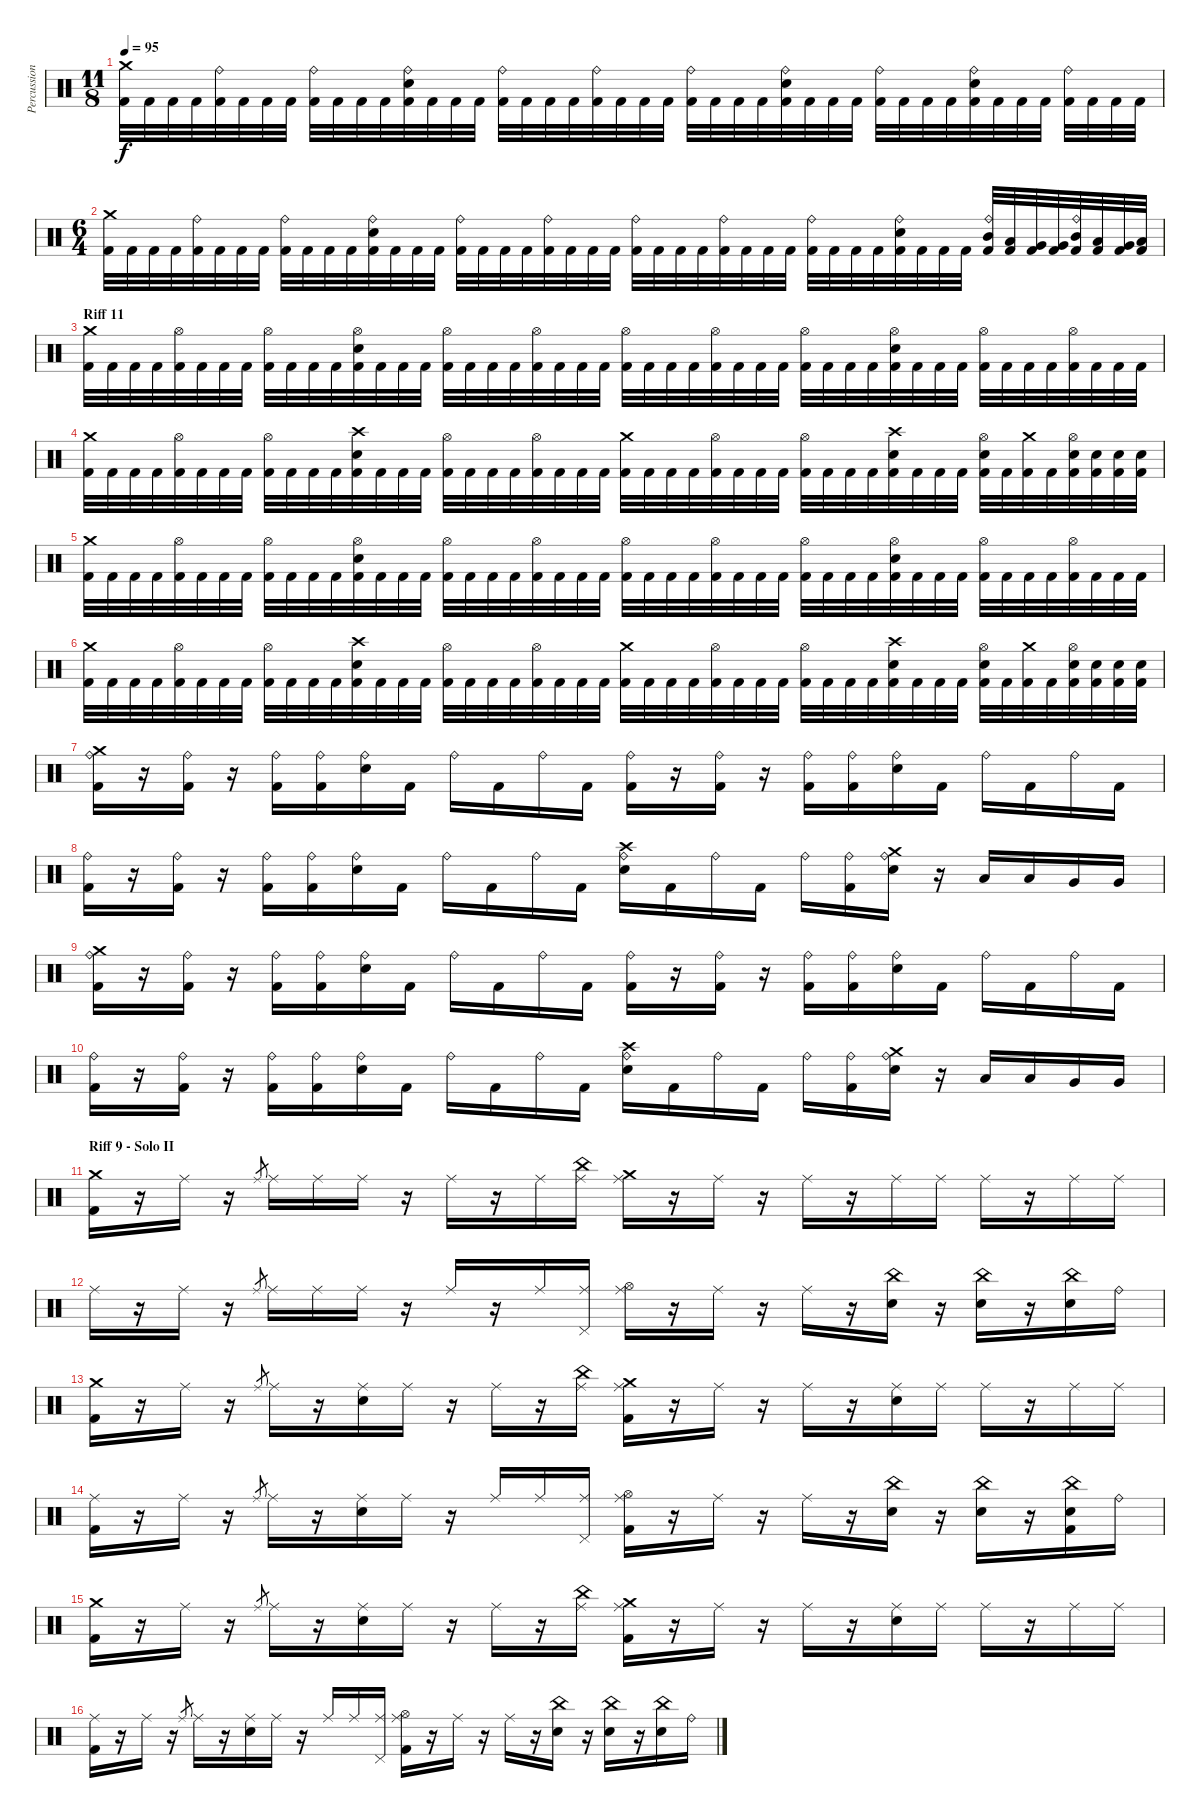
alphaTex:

\track ("Percussion" "Percussion") {instrument percussion}
\staff {score}
\articulation defaults
\ts (11 8)
\tempo 95
\clef neutral
\ks c
("Crash medium (hit)" "Kick (hit) 2").32{dy f} "Kick (hit) 2".32 "Kick (hit) 2".32 "Kick (hit) 2".32 ("Ride (bell)" "Kick (hit) 2").32 "Kick (hit) 2".32 "Kick (hit) 2".32 "Kick (hit) 2".32 ("Ride (bell)" "Kick (hit) 2").32 "Kick (hit) 2".32 "Kick (hit) 2".32 "Kick (hit) 2".32 ("Ride (bell)" "Electric Snare (hit)" "Kick (hit) 2").32 "Kick (hit) 2".32 "Kick (hit) 2".32 "Kick (hit) 2".32 ("Ride (bell)" "Kick (hit) 2").32 "Kick (hit) 2".32 "Kick (hit) 2".32 "Kick (hit) 2".32 ("Ride (bell)" "Kick (hit) 2").32 "Kick (hit) 2".32 "Kick (hit) 2".32 "Kick (hit) 2".32 ("Ride (bell)" "Kick (hit) 2").32 "Kick (hit) 2".32 "Kick (hit) 2".32 "Kick (hit) 2".32 ("Ride (bell)" "Electric Snare (hit)" "Kick (hit) 2").32 "Kick (hit) 2".32 "Kick (hit) 2".32 "Kick (hit) 2".32 ("Ride (bell)" "Kick (hit) 2").32 "Kick (hit) 2".32 "Kick (hit) 2".32 "Kick (hit) 2".32 ("Ride (bell)" "Electric Snare (hit)" "Kick (hit) 2").32 "Kick (hit) 2".32 "Kick (hit) 2".32 "Kick (hit) 2".32 ("Ride (bell)" "Kick (hit) 2").32 "Kick (hit) 2".32 "Kick (hit) 2".32 "Kick (hit) 2".32 |
\ts (6 4)
("Crash medium (hit)" "Kick (hit) 2").32 "Kick (hit) 2".32 "Kick (hit) 2".32 "Kick (hit) 2".32 ("Ride (bell)" "Kick (hit) 2").32 "Kick (hit) 2".32 "Kick (hit) 2".32 "Kick (hit) 2".32 ("Ride (bell)" "Kick (hit) 2").32 "Kick (hit) 2".32 "Kick (hit) 2".32 "Kick (hit) 2".32 ("Ride (bell)" "Electric Snare (hit)" "Kick (hit) 2").32 "Kick (hit) 2".32 "Kick (hit) 2".32 "Kick (hit) 2".32 ("Ride (bell)" "Kick (hit) 2").32 "Kick (hit) 2".32 "Kick (hit) 2".32 "Kick (hit) 2".32 ("Ride (bell)" "Kick (hit) 2").32 "Kick (hit) 2".32 "Kick (hit) 2".32 "Kick (hit) 2".32 ("Ride (bell)" "Kick (hit) 2").32 "Kick (hit) 2".32 "Kick (hit) 2".32 "Kick (hit) 2".32 ("Ride (bell)" "Kick (hit) 2").32 "Kick (hit) 2".32 "Kick (hit) 2".32 "Kick (hit) 2".32 ("Ride (bell)" "Kick (hit) 2").32 "Kick (hit) 2".32 "Kick (hit) 2".32 "Kick (hit) 2".32 ("Ride (bell)" "Electric Snare (hit)" "Kick (hit) 2").32 "Kick (hit) 2".32 "Kick (hit) 2".32 "Kick (hit) 2".32 ("Ride (bell)" "Mid Tom (hit)" "Kick (hit) 2").32 ("Low Tom (hit)" "Kick (hit) 2").32 ("Very Low Tom (hit)" "Kick (hit) 2").32 ("Very Low Tom (hit)" "Kick (hit) 2").32 ("Ride (bell)" "Mid Tom (hit)" "Kick (hit) 2").32 ("Low Tom (hit)" "Kick (hit) 2").32 ("Very Low Tom (hit)" "Kick (hit) 2").32 ("Low Floor Tom (hit)" "Kick (hit) 2").32 |
\section ("" "Riff 11")
("Crash medium (hit)" "Kick (hit) 2").32 "Kick (hit) 2".32 "Kick (hit) 2".32 "Kick (hit) 2".32 ("Hi-Hat (open)" "Kick (hit) 2").32 "Kick (hit) 2".32 "Kick (hit) 2".32 "Kick (hit) 2".32 ("Hi-Hat (open)" "Kick (hit) 2").32 "Kick (hit) 2".32 "Kick (hit) 2".32 "Kick (hit) 2".32 ("Hi-Hat (open)" "Electric Snare (hit)" "Kick (hit) 2").32 "Kick (hit) 2".32 "Kick (hit) 2".32 "Kick (hit) 2".32 ("Hi-Hat (open)" "Kick (hit) 2").32 "Kick (hit) 2".32 "Kick (hit) 2".32 "Kick (hit) 2".32 ("Hi-Hat (open)" "Kick (hit) 2").32 "Kick (hit) 2".32 "Kick (hit) 2".32 "Kick (hit) 2".32 ("Hi-Hat (open)" "Kick (hit) 2").32 "Kick (hit) 2".32 "Kick (hit) 2".32 "Kick (hit) 2".32 ("Hi-Hat (open)" "Kick (hit) 2").32 "Kick (hit) 2".32 "Kick (hit) 2".32 "Kick (hit) 2".32 ("Hi-Hat (open)" "Kick (hit) 2").32 "Kick (hit) 2".32 "Kick (hit) 2".32 "Kick (hit) 2".32 ("Hi-Hat (open)" "Electric Snare (hit)" "Kick (hit) 2").32 "Kick (hit) 2".32 "Kick (hit) 2".32 "Kick (hit) 2".32 ("Hi-Hat (open)" "Kick (hit) 2").32 "Kick (hit) 2".32 "Kick (hit) 2".32 "Kick (hit) 2".32 ("Hi-Hat (open)" "Kick (hit) 2").32 "Kick (hit) 2".32 "Kick (hit) 2".32 "Kick (hit) 2".32 |
("Crash medium (hit)" "Kick (hit) 2").32 "Kick (hit) 2".32 "Kick (hit) 2".32 "Kick (hit) 2".32 ("Hi-Hat (open)" "Kick (hit) 2").32 "Kick (hit) 2".32 "Kick (hit) 2".32 "Kick (hit) 2".32 ("Hi-Hat (open)" "Kick (hit) 2").32 "Kick (hit) 2".32 "Kick (hit) 2".32 "Kick (hit) 2".32 ("Crash high (hit)" "Electric Snare (hit)" "Kick (hit) 2").32 "Kick (hit) 2".32 "Kick (hit) 2".32 "Kick (hit) 2".32 ("Hi-Hat (open)" "Kick (hit) 2").32 "Kick (hit) 2".32 "Kick (hit) 2".32 "Kick (hit) 2".32 ("Hi-Hat (open)" "Kick (hit) 2").32 "Kick (hit) 2".32 "Kick (hit) 2".32 "Kick (hit) 2".32 ("Crash medium (hit)" "Kick (hit) 2").32 "Kick (hit) 2".32 "Kick (hit) 2".32 "Kick (hit) 2".32 ("Hi-Hat (open)" "Kick (hit) 2").32 "Kick (hit) 2".32 "Kick (hit) 2".32 "Kick (hit) 2".32 ("Hi-Hat (open)" "Kick (hit) 2").32 "Kick (hit) 2".32 "Kick (hit) 2".32 "Kick (hit) 2".32 ("Crash high (hit)" "Electric Snare (hit)" "Kick (hit) 2").32 "Kick (hit) 2".32 "Kick (hit) 2".32 "Kick (hit) 2".32 ("Hi-Hat (open)" "Electric Snare (hit)" "Kick (hit) 2").32 "Kick (hit) 2".32 ("Crash medium (hit)" "Kick (hit) 2").32 "Kick (hit) 2".32 ("Hi-Hat (open)" "Electric Snare (hit)" "Kick (hit) 2").32 ("Electric Snare (hit)" "Kick (hit) 2").32 ("Electric Snare (hit)" "Kick (hit) 2").32 ("Electric Snare (hit)" "Kick (hit) 2").32 |
("Crash medium (hit)" "Kick (hit) 2").32 "Kick (hit) 2".32 "Kick (hit) 2".32 "Kick (hit) 2".32 ("Hi-Hat (open)" "Kick (hit) 2").32 "Kick (hit) 2".32 "Kick (hit) 2".32 "Kick (hit) 2".32 ("Hi-Hat (open)" "Kick (hit) 2").32 "Kick (hit) 2".32 "Kick (hit) 2".32 "Kick (hit) 2".32 ("Hi-Hat (open)" "Electric Snare (hit)" "Kick (hit) 2").32 "Kick (hit) 2".32 "Kick (hit) 2".32 "Kick (hit) 2".32 ("Hi-Hat (open)" "Kick (hit) 2").32 "Kick (hit) 2".32 "Kick (hit) 2".32 "Kick (hit) 2".32 ("Hi-Hat (open)" "Kick (hit) 2").32 "Kick (hit) 2".32 "Kick (hit) 2".32 "Kick (hit) 2".32 ("Hi-Hat (open)" "Kick (hit) 2").32 "Kick (hit) 2".32 "Kick (hit) 2".32 "Kick (hit) 2".32 ("Hi-Hat (open)" "Kick (hit) 2").32 "Kick (hit) 2".32 "Kick (hit) 2".32 "Kick (hit) 2".32 ("Hi-Hat (open)" "Kick (hit) 2").32 "Kick (hit) 2".32 "Kick (hit) 2".32 "Kick (hit) 2".32 ("Hi-Hat (open)" "Electric Snare (hit)" "Kick (hit) 2").32 "Kick (hit) 2".32 "Kick (hit) 2".32 "Kick (hit) 2".32 ("Hi-Hat (open)" "Kick (hit) 2").32 "Kick (hit) 2".32 "Kick (hit) 2".32 "Kick (hit) 2".32 ("Hi-Hat (open)" "Kick (hit) 2").32 "Kick (hit) 2".32 "Kick (hit) 2".32 "Kick (hit) 2".32 |
("Crash medium (hit)" "Kick (hit) 2").32 "Kick (hit) 2".32 "Kick (hit) 2".32 "Kick (hit) 2".32 ("Hi-Hat (open)" "Kick (hit) 2").32 "Kick (hit) 2".32 "Kick (hit) 2".32 "Kick (hit) 2".32 ("Hi-Hat (open)" "Kick (hit) 2").32 "Kick (hit) 2".32 "Kick (hit) 2".32 "Kick (hit) 2".32 ("Crash high (hit)" "Electric Snare (hit)" "Kick (hit) 2").32 "Kick (hit) 2".32 "Kick (hit) 2".32 "Kick (hit) 2".32 ("Hi-Hat (open)" "Kick (hit) 2").32 "Kick (hit) 2".32 "Kick (hit) 2".32 "Kick (hit) 2".32 ("Hi-Hat (open)" "Kick (hit) 2").32 "Kick (hit) 2".32 "Kick (hit) 2".32 "Kick (hit) 2".32 ("Crash medium (hit)" "Kick (hit) 2").32 "Kick (hit) 2".32 "Kick (hit) 2".32 "Kick (hit) 2".32 ("Hi-Hat (open)" "Kick (hit) 2").32 "Kick (hit) 2".32 "Kick (hit) 2".32 "Kick (hit) 2".32 ("Hi-Hat (open)" "Kick (hit) 2").32 "Kick (hit) 2".32 "Kick (hit) 2".32 "Kick (hit) 2".32 ("Crash high (hit)" "Electric Snare (hit)" "Kick (hit) 2").32 "Kick (hit) 2".32 "Kick (hit) 2".32 "Kick (hit) 2".32 ("Hi-Hat (open)" "Electric Snare (hit)" "Kick (hit) 2").32 "Kick (hit) 2".32 ("Crash medium (hit)" "Kick (hit) 2").32 "Kick (hit) 2".32 ("Hi-Hat (open)" "Electric Snare (hit)" "Kick (hit) 2").32 ("Electric Snare (hit)" "Kick (hit) 2").32 ("Electric Snare (hit)" "Kick (hit) 2").32 ("Electric Snare (hit)" "Kick (hit) 2").32 |
("Crash medium (hit)" "Ride (bell)" "Kick (hit) 2").16 r.16 ("Ride (bell)" "Kick (hit) 2").16 r.16 ("Ride (bell)" "Kick (hit) 2").16 ("Ride (bell)" "Kick (hit) 2").16 ("Ride (bell)" "Electric Snare (hit)").16 "Kick (hit) 2".16 "Ride (bell)".16 "Kick (hit) 2".16 "Ride (bell)".16 "Kick (hit) 2".16 ("Ride (bell)" "Kick (hit) 2").16 r.16 ("Ride (bell)" "Kick (hit) 2").16 r.16 ("Ride (bell)" "Kick (hit) 2").16 ("Ride (bell)" "Kick (hit) 2").16 ("Ride (bell)" "Electric Snare (hit)").16 "Kick (hit) 2".16 "Ride (bell)".16 "Kick (hit) 2".16 "Ride (bell)".16 "Kick (hit) 2".16 |
("Ride (bell)" "Kick (hit) 2").16 r.16 ("Ride (bell)" "Kick (hit) 2").16 r.16 ("Ride (bell)" "Kick (hit) 2").16 ("Ride (bell)" "Kick (hit) 2").16 ("Ride (bell)" "Electric Snare (hit)").16 "Kick (hit) 2".16 "Ride (bell)".16 "Kick (hit) 2".16 "Ride (bell)".16 "Kick (hit) 2".16 ("Crash high (hit)" "Ride (bell)" "Electric Snare (hit)").16 "Kick (hit) 2".16 "Ride (bell)".16 "Kick (hit) 2".16 "Ride (bell)".16 ("Ride (bell)" "Kick (hit) 2").16 ("Crash medium (hit)" "Ride (bell)" "Electric Snare (hit)").16 r.16 "Low Tom (hit)".16 "Low Tom (hit)".16 "Very Low Tom (hit)".16 "Very Low Tom (hit)".16 |
("Crash medium (hit)" "Ride (bell)" "Kick (hit) 2").16 r.16 ("Ride (bell)" "Kick (hit) 2").16 r.16 ("Ride (bell)" "Kick (hit) 2").16 ("Ride (bell)" "Kick (hit) 2").16 ("Ride (bell)" "Electric Snare (hit)").16 "Kick (hit) 2".16 "Ride (bell)".16 "Kick (hit) 2".16 "Ride (bell)".16 "Kick (hit) 2".16 ("Ride (bell)" "Kick (hit) 2").16 r.16 ("Ride (bell)" "Kick (hit) 2").16 r.16 ("Ride (bell)" "Kick (hit) 2").16 ("Ride (bell)" "Kick (hit) 2").16 ("Ride (bell)" "Electric Snare (hit)").16 "Kick (hit) 2".16 "Ride (bell)".16 "Kick (hit) 2".16 "Ride (bell)".16 "Kick (hit) 2".16 |
("Ride (bell)" "Kick (hit) 2").16 r.16 ("Ride (bell)" "Kick (hit) 2").16 r.16 ("Ride (bell)" "Kick (hit) 2").16 ("Ride (bell)" "Kick (hit) 2").16 ("Ride (bell)" "Electric Snare (hit)").16 "Kick (hit) 2".16 "Ride (bell)".16 "Kick (hit) 2".16 "Ride (bell)".16 "Kick (hit) 2".16 ("Crash high (hit)" "Ride (bell)" "Electric Snare (hit)").16 "Kick (hit) 2".16 "Ride (bell)".16 "Kick (hit) 2".16 "Ride (bell)".16 ("Ride (bell)" "Kick (hit) 2").16 ("Crash medium (hit)" "Ride (bell)" "Electric Snare (hit)").16 r.16 "Low Tom (hit)".16 "Low Tom (hit)".16 "Very Low Tom (hit)".16 "Very Low Tom (hit)".16 |
\section ("" "Riff 9 - Solo II")
("Crash medium (hit)" "Kick (hit) 2").16 r.16 "Ride (middle)".16 r.16 "Ride (middle)".8{gr} "Ride (middle)".16 "Ride (middle)".16 "Ride (middle)".16 r.16 "Ride (middle)".16 r.16 "Ride (middle)".16 ("Ride (middle)" "China (hit)").16 ("Ride (middle)" "Crash medium (hit)").16 r.16 "Ride (middle)".16 r.16 "Ride (middle)".16 r.16 "Ride (middle)".16 "Ride (middle)".16 "Ride (middle)".16 r.16 "Ride (middle)".16 "Ride (middle)".16 |
"Ride (middle)".16 r.16 "Ride (middle)".16 r.16 "Ride (middle)".8{gr} "Ride (middle)".16 "Ride (middle)".16 "Ride (middle)".16 r.16 "Ride (middle)".16 r.16 "Ride (middle)".16 ("Ride (middle)" "Pedal Hi-Hat (hit)").16 ("Ride (middle)" "Hi-Hat (open)").16 r.16 "Ride (middle)".16 r.16 "Ride (middle)".16 r.16 ("China (hit)" "Electric Snare (hit)").16 r.16 ("China (hit)" "Electric Snare (hit)").16 r.16 ("China (hit)" "Electric Snare (hit)").16 "Ride (bell)".16 |
("Crash medium (hit)" "Kick (hit) 2").16 r.16 "Ride (middle)".16 r.16 "Ride (middle)".8{gr} "Ride (middle)".16 r.16 ("Ride (middle)" "Electric Snare (hit)").16 "Ride (middle)".16 r.16 "Ride (middle)".16 r.16 ("Ride (middle)" "China (hit)").16 ("Ride (middle)" "Crash medium (hit)" "Kick (hit) 2").16 r.16 "Ride (middle)".16 r.16 "Ride (middle)".16 r.16 ("Ride (middle)" "Electric Snare (hit)").16 "Ride (middle)".16 "Ride (middle)".16 r.16 "Ride (middle)".16 "Ride (middle)".16 |
("Ride (middle)" "Kick (hit) 2").16 r.16 "Ride (middle)".16 r.16 "Ride (middle)".8{gr} "Ride (middle)".16 r.16 ("Ride (middle)" "Electric Snare (hit)").16 "Ride (middle)".16 r.16 "Ride (middle)".16 "Ride (middle)".16 ("Ride (middle)" "Pedal Hi-Hat (hit)").16 ("Ride (middle)" "Hi-Hat (open)" "Kick (hit) 2").16 r.16 "Ride (middle)".16 r.16 "Ride (middle)".16 r.16 ("China (hit)" "Electric Snare (hit)").16 r.16 ("China (hit)" "Electric Snare (hit)").16 r.16 ("China (hit)" "Electric Snare (hit)" "Kick (hit) 2").16 "Ride (bell)".16 |
("Crash medium (hit)" "Kick (hit) 2").16 r.16 "Ride (middle)".16 r.16 "Ride (middle)".8{gr} "Ride (middle)".16 r.16 ("Ride (middle)" "Electric Snare (hit)").16 "Ride (middle)".16 r.16 "Ride (middle)".16 r.16 ("Ride (middle)" "China (hit)").16 ("Ride (middle)" "Crash medium (hit)" "Kick (hit) 2").16 r.16 "Ride (middle)".16 r.16 "Ride (middle)".16 r.16 ("Ride (middle)" "Electric Snare (hit)").16 "Ride (middle)".16 "Ride (middle)".16 r.16 "Ride (middle)".16 "Ride (middle)".16 |
("Ride (middle)" "Kick (hit) 2").16 r.16 "Ride (middle)".16 r.16 "Ride (middle)".8{gr} "Ride (middle)".16 r.16 ("Ride (middle)" "Electric Snare (hit)").16 "Ride (middle)".16 r.16 "Ride (middle)".16 "Ride (middle)".16 ("Ride (middle)" "Pedal Hi-Hat (hit)").16 ("Ride (middle)" "Hi-Hat (open)" "Kick (hit) 2").16 r.16 "Ride (middle)".16 r.16 "Ride (middle)".16 r.16 ("China (hit)" "Electric Snare (hit)").16 r.16 ("China (hit)" "Electric Snare (hit)").16 r.16 ("China (hit)" "Electric Snare (hit)").16 "Ride (bell)".16
